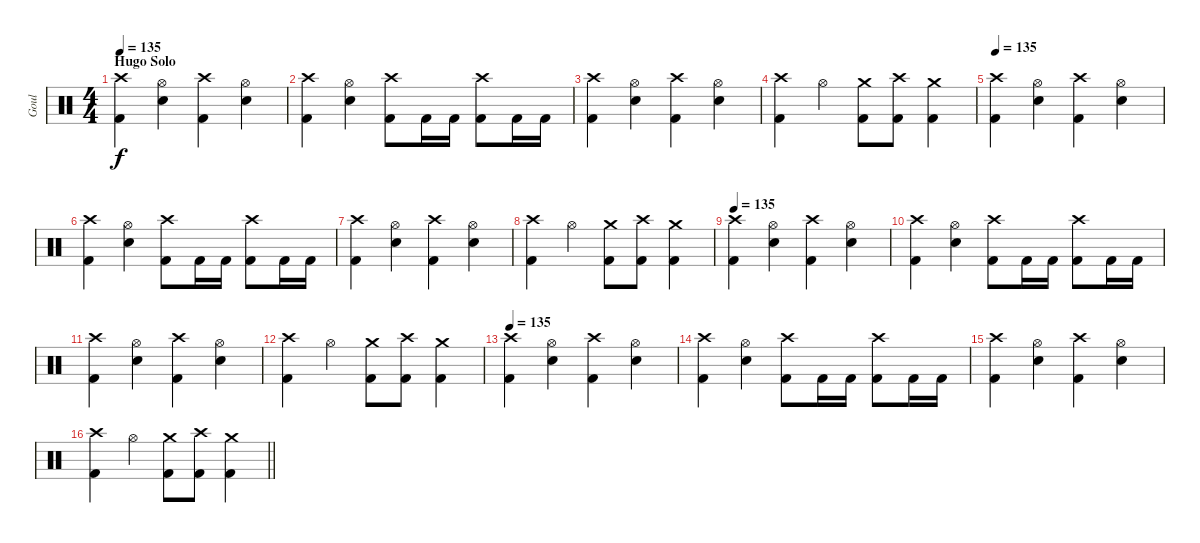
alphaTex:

\track ("Goul" "Goul") {instrument percussion}
\staff {score}
\articulation defaults
\ts (4 4)
\section ("" "Hugo Solo")
\tempo 135
\clef neutral
\ks c
("Crash high (hit)" "Kick (hit) 2").4{dy f} ("Hi-Hat (open)" "Electric Snare (hit)").4 ("Crash high (hit)" "Kick (hit) 2").4 ("Hi-Hat (open)" "Electric Snare (hit)").4 |
("Crash high (hit)" "Kick (hit) 2").4 ("Hi-Hat (open)" "Electric Snare (hit)").4 ("Crash high (hit)" "Kick (hit) 2").8 "Kick (hit) 2".16 "Kick (hit) 2".16 ("Crash high (hit)" "Kick (hit) 2").8 "Kick (hit) 2".16 "Kick (hit) 2".16 |
("Crash high (hit)" "Kick (hit) 2").4 ("Hi-Hat (open)" "Electric Snare (hit)").4 ("Crash high (hit)" "Kick (hit) 2").4 ("Hi-Hat (open)" "Electric Snare (hit)").4 |
("Crash high (hit)" "Kick (hit) 2").4 "Hi-Hat (open)".4 ("Crash medium (hit)" "Kick (hit) 2").8 ("Crash high (hit)" "Kick (hit) 2").8 ("Crash medium (hit)" "Kick (hit) 2").4 |
\tempo 135
("Crash high (hit)" "Kick (hit) 2").4 ("Hi-Hat (open)" "Electric Snare (hit)").4 ("Crash high (hit)" "Kick (hit) 2").4 ("Hi-Hat (open)" "Electric Snare (hit)").4 |
("Crash high (hit)" "Kick (hit) 2").4 ("Hi-Hat (open)" "Electric Snare (hit)").4 ("Crash high (hit)" "Kick (hit) 2").8 "Kick (hit) 2".16 "Kick (hit) 2".16 ("Crash high (hit)" "Kick (hit) 2").8 "Kick (hit) 2".16 "Kick (hit) 2".16 |
("Crash high (hit)" "Kick (hit) 2").4 ("Hi-Hat (open)" "Electric Snare (hit)").4 ("Crash high (hit)" "Kick (hit) 2").4 ("Hi-Hat (open)" "Electric Snare (hit)").4 |
("Crash high (hit)" "Kick (hit) 2").4 "Hi-Hat (open)".4 ("Crash medium (hit)" "Kick (hit) 2").8 ("Crash high (hit)" "Kick (hit) 2").8 ("Crash medium (hit)" "Kick (hit) 2").4 |
\tempo 135
("Crash high (hit)" "Kick (hit) 2").4 ("Hi-Hat (open)" "Electric Snare (hit)").4 ("Crash high (hit)" "Kick (hit) 2").4 ("Hi-Hat (open)" "Electric Snare (hit)").4 |
("Crash high (hit)" "Kick (hit) 2").4 ("Hi-Hat (open)" "Electric Snare (hit)").4 ("Crash high (hit)" "Kick (hit) 2").8 "Kick (hit) 2".16 "Kick (hit) 2".16 ("Crash high (hit)" "Kick (hit) 2").8 "Kick (hit) 2".16 "Kick (hit) 2".16 |
("Crash high (hit)" "Kick (hit) 2").4 ("Hi-Hat (open)" "Electric Snare (hit)").4 ("Crash high (hit)" "Kick (hit) 2").4 ("Hi-Hat (open)" "Electric Snare (hit)").4 |
("Crash high (hit)" "Kick (hit) 2").4 "Hi-Hat (open)".4 ("Crash medium (hit)" "Kick (hit) 2").8 ("Crash high (hit)" "Kick (hit) 2").8 ("Crash medium (hit)" "Kick (hit) 2").4 |
\tempo 135
("Crash high (hit)" "Kick (hit) 2").4 ("Hi-Hat (open)" "Electric Snare (hit)").4 ("Crash high (hit)" "Kick (hit) 2").4 ("Hi-Hat (open)" "Electric Snare (hit)").4 |
("Crash high (hit)" "Kick (hit) 2").4 ("Hi-Hat (open)" "Electric Snare (hit)").4 ("Crash high (hit)" "Kick (hit) 2").8 "Kick (hit) 2".16 "Kick (hit) 2".16 ("Crash high (hit)" "Kick (hit) 2").8 "Kick (hit) 2".16 "Kick (hit) 2".16 |
("Crash high (hit)" "Kick (hit) 2").4 ("Hi-Hat (open)" "Electric Snare (hit)").4 ("Crash high (hit)" "Kick (hit) 2").4 ("Hi-Hat (open)" "Electric Snare (hit)").4 |
\barLineRight lightlight
("Crash high (hit)" "Kick (hit) 2").4 "Hi-Hat (open)".4 ("Crash medium (hit)" "Kick (hit) 2").8 ("Crash high (hit)" "Kick (hit) 2").8 ("Crash medium (hit)" "Kick (hit) 2").4
